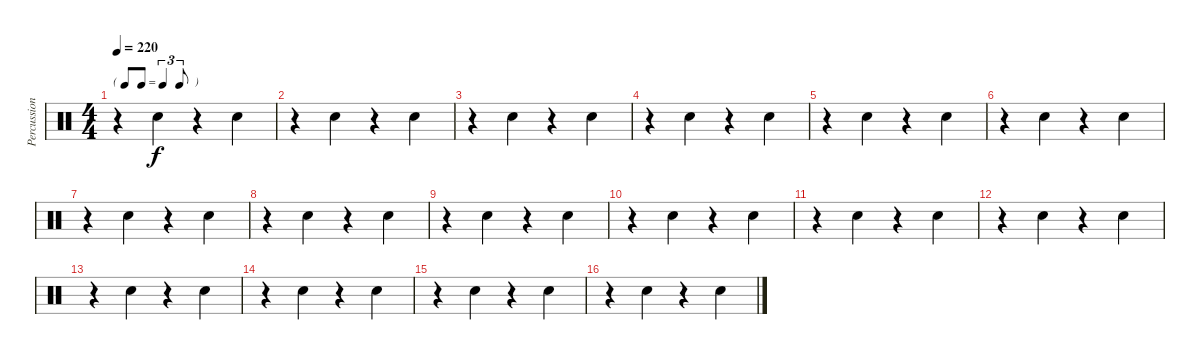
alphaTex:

\track ("Percussion" "Percussion") {instrument percussion}
\staff {score}
\articulation defaults
\ts (4 4)
\tf triplet8th
\tempo 220
\clef neutral
\ks c
r.4{dy f} "Snare (hit) 2".4 r.4 "Snare (hit) 2".4 |
r.4 "Snare (hit) 2".4 r.4 "Snare (hit) 2".4 |
r.4 "Snare (hit) 2".4 r.4 "Snare (hit) 2".4 |
r.4 "Snare (hit) 2".4 r.4 "Snare (hit) 2".4 |
r.4 "Snare (hit) 2".4 r.4 "Snare (hit) 2".4 |
r.4 "Snare (hit) 2".4 r.4 "Snare (hit) 2".4 |
r.4 "Snare (hit) 2".4 r.4 "Snare (hit) 2".4 |
r.4 "Snare (hit) 2".4 r.4 "Snare (hit) 2".4 |
r.4 "Snare (hit) 2".4 r.4 "Snare (hit) 2".4 |
r.4 "Snare (hit) 2".4 r.4 "Snare (hit) 2".4 |
r.4 "Snare (hit) 2".4 r.4 "Snare (hit) 2".4 |
r.4 "Snare (hit) 2".4 r.4 "Snare (hit) 2".4 |
r.4 "Snare (hit) 2".4 r.4 "Snare (hit) 2".4 |
r.4 "Snare (hit) 2".4 r.4 "Snare (hit) 2".4 |
r.4 "Snare (hit) 2".4 r.4 "Snare (hit) 2".4 |
r.4 "Snare (hit) 2".4 r.4 "Snare (hit) 2".4
